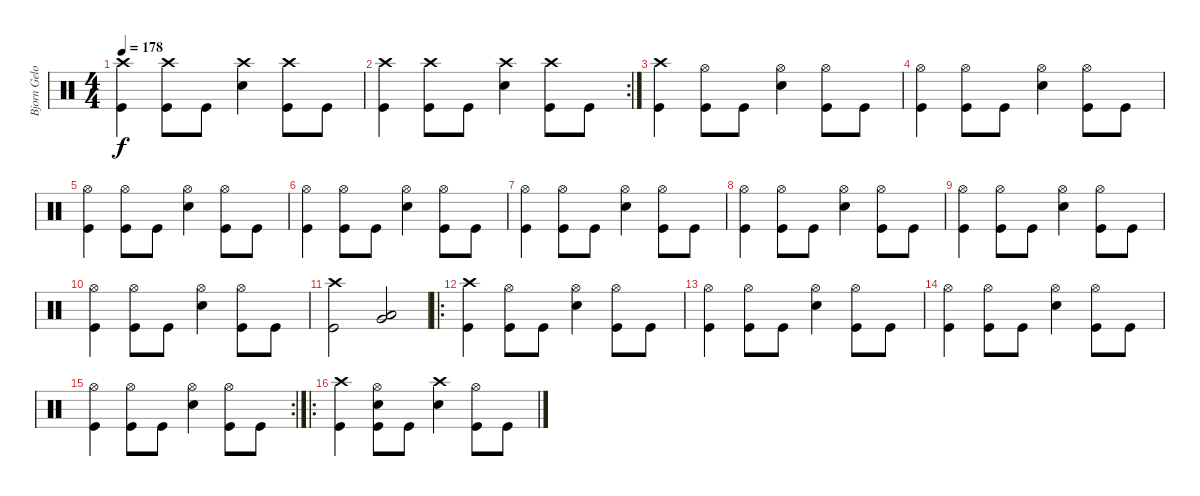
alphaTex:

\track ("Bjorn Gelotte-Drum" "Bjorn Gelo") {instrument percussion}
\staff {score}
\articulation defaults
\ts (4 4)
\tempo 178
\clef neutral
\ks c
("Crash high (hit)" "Kick (hit)").4{dy f} ("Crash high (hit)" "Kick (hit)").8 "Kick (hit)".8 ("Crash high (hit)" "Electric Snare (hit)").4 ("Crash high (hit)" "Kick (hit)").8 "Kick (hit)".8 |
\rc 2
("Crash high (hit)" "Kick (hit)").4 ("Crash high (hit)" "Kick (hit)").8 "Kick (hit)".8 ("Crash high (hit)" "Electric Snare (hit)").4 ("Crash high (hit)" "Kick (hit)").8 "Kick (hit)".8 |
("Crash high (hit)" "Kick (hit)").4 ("Hi-Hat (open)" "Kick (hit)").8 "Kick (hit)".8 ("Hi-Hat (open)" "Electric Snare (hit)").4 ("Hi-Hat (open)" "Kick (hit)").8 "Kick (hit)".8 |
("Hi-Hat (open)" "Kick (hit)").4 ("Hi-Hat (open)" "Kick (hit)").8 "Kick (hit)".8 ("Hi-Hat (open)" "Electric Snare (hit)").4 ("Hi-Hat (open)" "Kick (hit)").8 "Kick (hit)".8 |
("Hi-Hat (open)" "Kick (hit)").4 ("Hi-Hat (open)" "Kick (hit)").8 "Kick (hit)".8 ("Hi-Hat (open)" "Electric Snare (hit)").4 ("Hi-Hat (open)" "Kick (hit)").8 "Kick (hit)".8 |
("Hi-Hat (open)" "Kick (hit)").4 ("Hi-Hat (open)" "Kick (hit)").8 "Kick (hit)".8 ("Hi-Hat (open)" "Electric Snare (hit)").4 ("Hi-Hat (open)" "Kick (hit)").8 "Kick (hit)".8 |
("Hi-Hat (open)" "Kick (hit)").4 ("Hi-Hat (open)" "Kick (hit)").8 "Kick (hit)".8 ("Hi-Hat (open)" "Electric Snare (hit)").4 ("Hi-Hat (open)" "Kick (hit)").8 "Kick (hit)".8 |
("Hi-Hat (open)" "Kick (hit)").4 ("Hi-Hat (open)" "Kick (hit)").8 "Kick (hit)".8 ("Hi-Hat (open)" "Electric Snare (hit)").4 ("Hi-Hat (open)" "Kick (hit)").8 "Kick (hit)".8 |
("Hi-Hat (open)" "Kick (hit)").4 ("Hi-Hat (open)" "Kick (hit)").8 "Kick (hit)".8 ("Hi-Hat (open)" "Electric Snare (hit)").4 ("Hi-Hat (open)" "Kick (hit)").8 "Kick (hit)".8 |
("Hi-Hat (open)" "Kick (hit)").4 ("Hi-Hat (open)" "Kick (hit)").8 "Kick (hit)".8 ("Hi-Hat (open)" "Electric Snare (hit)").4 ("Hi-Hat (open)" "Kick (hit)").8 "Kick (hit)".8 |
("Crash high (hit)" "Kick (hit)").2 ("Very Low Tom (hit)" "Low Floor Tom (hit)").2 |
\ro
("Crash high (hit)" "Kick (hit)").4 ("Hi-Hat (open)" "Kick (hit)").8 "Kick (hit)".8 ("Hi-Hat (open)" "Electric Snare (hit)").4 ("Hi-Hat (open)" "Kick (hit)").8 "Kick (hit)".8 |
("Hi-Hat (open)" "Kick (hit)").4 ("Hi-Hat (open)" "Kick (hit)").8 "Kick (hit)".8 ("Hi-Hat (open)" "Electric Snare (hit)").4 ("Hi-Hat (open)" "Kick (hit)").8 "Kick (hit)".8 |
("Hi-Hat (open)" "Kick (hit)").4 ("Hi-Hat (open)" "Kick (hit)").8 "Kick (hit)".8 ("Hi-Hat (open)" "Electric Snare (hit)").4 ("Hi-Hat (open)" "Kick (hit)").8 "Kick (hit)".8 |
\rc 2
("Hi-Hat (open)" "Kick (hit)").4 ("Hi-Hat (open)" "Kick (hit)").8 "Kick (hit)".8 ("Hi-Hat (open)" "Electric Snare (hit)").4 ("Hi-Hat (open)" "Kick (hit)").8 "Kick (hit)".8 |
\ro
("Crash high (hit)" "Kick (hit)").4 ("Hi-Hat (open)" "Electric Snare (hit)" "Kick (hit)").8 "Kick (hit)".8 ("Crash high (hit)" "Electric Snare (hit)").4 ("Hi-Hat (open)" "Kick (hit)").8 "Kick (hit)".8
